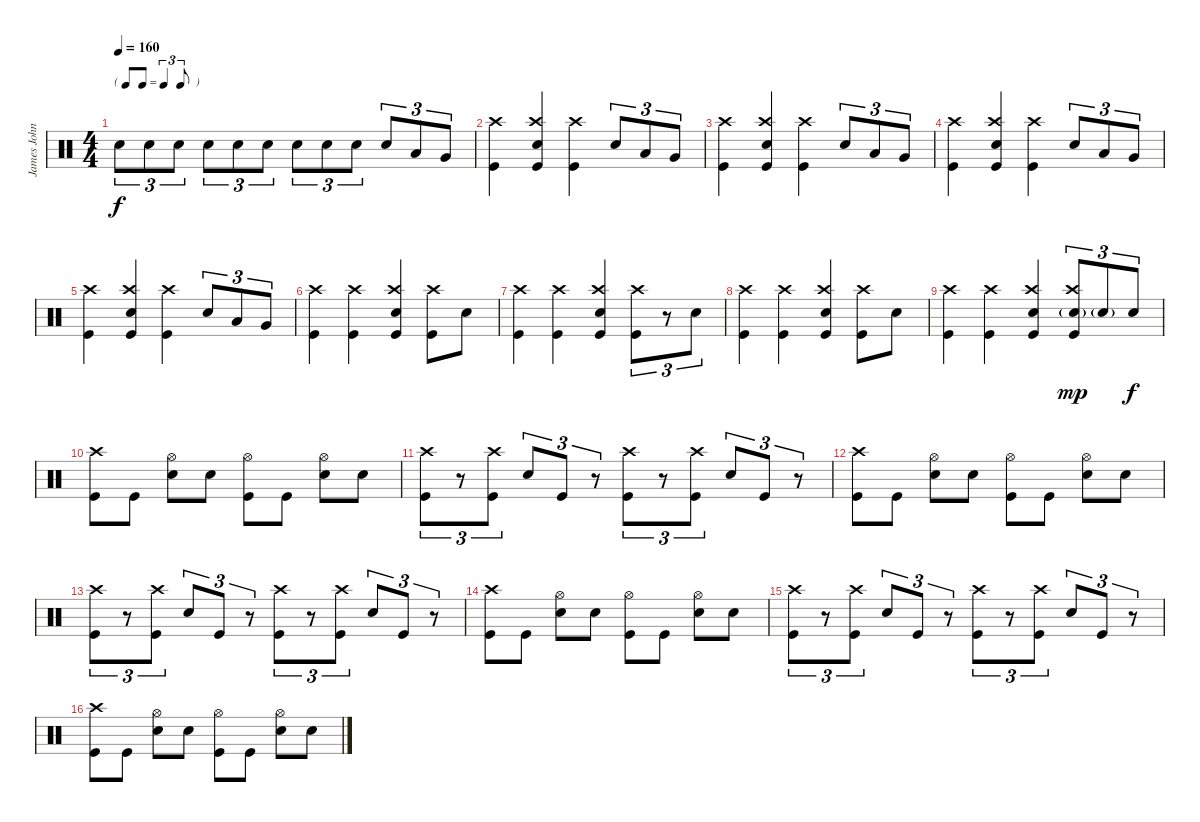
\track ("James Johnston" "James John") {instrument percussion}
\staff {score}
\articulation defaults
\ts (4 4)
\tf triplet8th
\tempo 160
\clef neutral
\ks c "Electric Snare (hit)".8{tu (3 2) dy f} "Electric Snare (hit)".8{tu (3 2)} "Electric Snare (hit)".8{tu (3 2)} "Electric Snare (hit)".8{tu (3 2)} "Electric Snare (hit)".8{tu (3 2)} "Electric Snare (hit)".8{tu (3 2)} "Electric Snare (hit)".8{tu (3 2)} "Electric Snare (hit)".8{tu (3 2)} "Electric Snare (hit)".8{tu (3 2)} "Electric Snare (hit)".8{tu (3 2)} "Low Tom (hit)".8{tu (3 2)} "Very Low Tom (hit)".8{tu (3 2)}
|
("Crash high (hit)" "Kick (hit)").4 ("Crash high (hit)" "Electric Snare (hit)" "Kick (hit)").4 ("Crash high (hit)" "Kick (hit)").4 "Electric Snare (hit)".8{tu (3 2)} "Low Tom (hit)".8{tu (3 2)} "Very Low Tom (hit)".8{tu (3 2)} |
("Crash high (hit)" "Kick (hit)").4 ("Crash high (hit)" "Electric Snare (hit)" "Kick (hit)").4 ("Crash high (hit)" "Kick (hit)").4 "Electric Snare (hit)".8{tu (3 2)} "Low Tom (hit)".8{tu (3 2)} "Very Low Tom (hit)".8{tu (3 2)} |
("Crash high (hit)" "Kick (hit)").4 ("Crash high (hit)" "Electric Snare (hit)" "Kick (hit)").4 ("Crash high (hit)" "Kick (hit)").4 "Electric Snare (hit)".8{tu (3 2)} "Low Tom (hit)".8{tu (3 2)} "Very Low Tom (hit)".8{tu (3 2)} |
("Crash high (hit)" "Kick (hit)").4 ("Crash high (hit)" "Electric Snare (hit)" "Kick (hit)").4 ("Crash high (hit)" "Kick (hit)").4 "Electric Snare (hit)".8{tu (3 2)} "Low Tom (hit)".8{tu (3 2)} "Very Low Tom (hit)".8{tu (3 2)} |
("Crash high (hit)" "Kick (hit)").4 ("Crash high (hit)" "Kick (hit)").4 ("Crash high (hit)" "Electric Snare (hit)" "Kick (hit)").4 ("Crash high (hit)" "Kick (hit)").8 "Electric Snare (hit)".8 |
("Crash high (hit)" "Kick (hit)").4 ("Crash high (hit)" "Kick (hit)").4 ("Crash high (hit)" "Electric Snare (hit)" "Kick (hit)").4 ("Crash high (hit)" "Kick (hit)").8{tu (3 2)} r.8{tu (3 2)} "Electric Snare (hit)".8{tu (3 2)} |
("Crash high (hit)" "Kick (hit)").4 ("Crash high (hit)" "Kick (hit)").4 ("Crash high (hit)" "Electric Snare (hit)" "Kick (hit)").4 ("Crash high (hit)" "Kick (hit)").8 "Electric Snare (hit)".8 |
("Crash high (hit)" "Kick (hit)").4 ("Crash high (hit)" "Kick (hit)").4 ("Crash high (hit)" "Electric Snare (hit)" "Kick (hit)").4 ("Crash high (hit)" "Electric Snare (hit)"{g} "Kick (hit)").8{tu (3 2) dy mp} "Electric Snare (hit)"{g}.8{tu (3 2)} "Electric Snare (hit)".8{tu (3 2) dy f} |
("Crash high (hit)" "Kick (hit)").8 "Kick (hit)".8 ("Hi-Hat (open)" "Electric Snare (hit)").8 "Electric Snare (hit)".8 ("Hi-Hat (open)" "Kick (hit)").8 "Kick (hit)".8 ("Hi-Hat (open)" "Electric Snare (hit)").8 "Electric Snare (hit)".8 |
("Crash high (hit)" "Kick (hit)").8{tu (3 2)} r.8{tu (3 2)} ("Crash high (hit)" "Kick (hit)").8{tu (3 2)} "Electric Snare (hit)".8{tu (3 2)} "Kick (hit)".8{tu (3 2)} r.8{tu (3 2)} ("Crash high (hit)" "Kick (hit)").8{tu (3 2)} r.8{tu (3 2)} ("Crash high (hit)" "Kick (hit)").8{tu (3 2)} "Electric Snare (hit)".8{tu (3 2)} "Kick (hit)".8{tu (3 2)} r.8{tu (3 2)} |
("Crash high (hit)" "Kick (hit)").8 "Kick (hit)".8 ("Hi-Hat (open)" "Electric Snare (hit)").8 "Electric Snare (hit)".8 ("Hi-Hat (open)" "Kick (hit)").8 "Kick (hit)".8 ("Hi-Hat (open)" "Electric Snare (hit)").8 "Electric Snare (hit)".8 |
("Crash high (hit)" "Kick (hit)").8{tu (3 2)} r.8{tu (3 2)} ("Crash high (hit)" "Kick (hit)").8{tu (3 2)} "Electric Snare (hit)".8{tu (3 2)} "Kick (hit)".8{tu (3 2)} r.8{tu (3 2)} ("Crash high (hit)" "Kick (hit)").8{tu (3 2)} r.8{tu (3 2)} ("Crash high (hit)" "Kick (hit)").8{tu (3 2)} "Electric Snare (hit)".8{tu (3 2)} "Kick (hit)".8{tu (3 2)} r.8{tu (3 2)} |
("Crash high (hit)" "Kick (hit)").8 "Kick (hit)".8 ("Hi-Hat (open)" "Electric Snare (hit)").8 "Electric Snare (hit)".8 ("Hi-Hat (open)" "Kick (hit)").8 "Kick (hit)".8 ("Hi-Hat (open)" "Electric Snare (hit)").8 "Electric Snare (hit)".8 |
("Crash high (hit)" "Kick (hit)").8{tu (3 2)} r.8{tu (3 2)} ("Crash high (hit)" "Kick (hit)").8{tu (3 2)} "Electric Snare (hit)".8{tu (3 2)} "Kick (hit)".8{tu (3 2)} r.8{tu (3 2)} ("Crash high (hit)" "Kick (hit)").8{tu (3 2)} r.8{tu (3 2)} ("Crash high (hit)" "Kick (hit)").8{tu (3 2)} "Electric Snare (hit)".8{tu (3 2)} "Kick (hit)".8{tu (3 2)} r.8{tu (3 2)} |
("Crash high (hit)" "Kick (hit)").8 "Kick (hit)".8 ("Hi-Hat (open)" "Electric Snare (hit)").8 "Electric Snare (hit)".8 ("Hi-Hat (open)" "Kick (hit)").8 "Kick (hit)".8 ("Hi-Hat (open)" "Electric Snare (hit)").8 "Electric Snare (hit)".8
